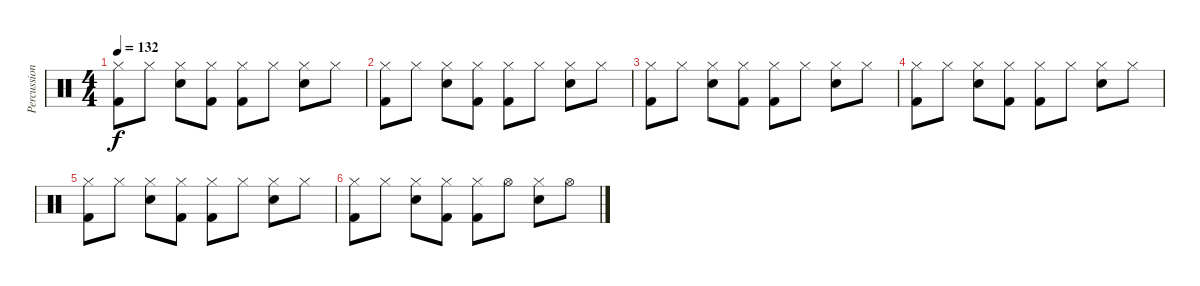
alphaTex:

\track ("Percussions" "Percussion") {instrument percussion}
\staff {score}
\articulation defaults
\ts (4 4)
\tempo 132
\clef neutral
\ks c
("Hi-Hat (closed)" "Kick (hit) 2").8{dy f} "Hi-Hat (closed)".8 ("Hi-Hat (closed)" "Snare (hit) 2").8 ("Hi-Hat (closed)" "Kick (hit) 2").8 ("Hi-Hat (closed)" "Kick (hit) 2").8 "Hi-Hat (closed)".8 ("Hi-Hat (closed)" "Snare (hit) 2").8 "Hi-Hat (closed)".8 |
("Hi-Hat (closed)" "Kick (hit) 2").8 "Hi-Hat (closed)".8 ("Hi-Hat (closed)" "Snare (hit) 2").8 ("Hi-Hat (closed)" "Kick (hit) 2").8 ("Hi-Hat (closed)" "Kick (hit) 2").8 "Hi-Hat (closed)".8 ("Hi-Hat (closed)" "Snare (hit) 2").8 "Hi-Hat (closed)".8 |
("Hi-Hat (closed)" "Kick (hit) 2").8{volume 0} "Hi-Hat (closed)".8 ("Hi-Hat (closed)" "Snare (hit) 2").8 ("Hi-Hat (closed)" "Kick (hit) 2").8 ("Hi-Hat (closed)" "Kick (hit) 2").8 "Hi-Hat (closed)".8 ("Hi-Hat (closed)" "Snare (hit) 2").8 "Hi-Hat (closed)".8 |
("Hi-Hat (closed)" "Kick (hit) 2").8 "Hi-Hat (closed)".8 ("Hi-Hat (closed)" "Snare (hit) 2").8 ("Hi-Hat (closed)" "Kick (hit) 2").8 ("Hi-Hat (closed)" "Kick (hit) 2").8 "Hi-Hat (closed)".8 ("Hi-Hat (closed)" "Snare (hit) 2").8 "Hi-Hat (closed)".8 |
("Hi-Hat (closed)" "Kick (hit) 2").8 "Hi-Hat (closed)".8 ("Hi-Hat (closed)" "Snare (hit) 2").8 ("Hi-Hat (closed)" "Kick (hit) 2").8 ("Hi-Hat (closed)" "Kick (hit) 2").8 "Hi-Hat (closed)".8 ("Hi-Hat (closed)" "Snare (hit) 2").8 "Hi-Hat (closed)".8 |
("Hi-Hat (closed)" "Kick (hit) 2").8 "Hi-Hat (closed)".8 ("Hi-Hat (closed)" "Snare (hit) 2").8 ("Hi-Hat (closed)" "Kick (hit) 2").8 ("Hi-Hat (closed)" "Kick (hit) 2").8 "Hi-Hat (open)".8 ("Hi-Hat (closed)" "Snare (hit) 2").8 "Hi-Hat (open)".8
